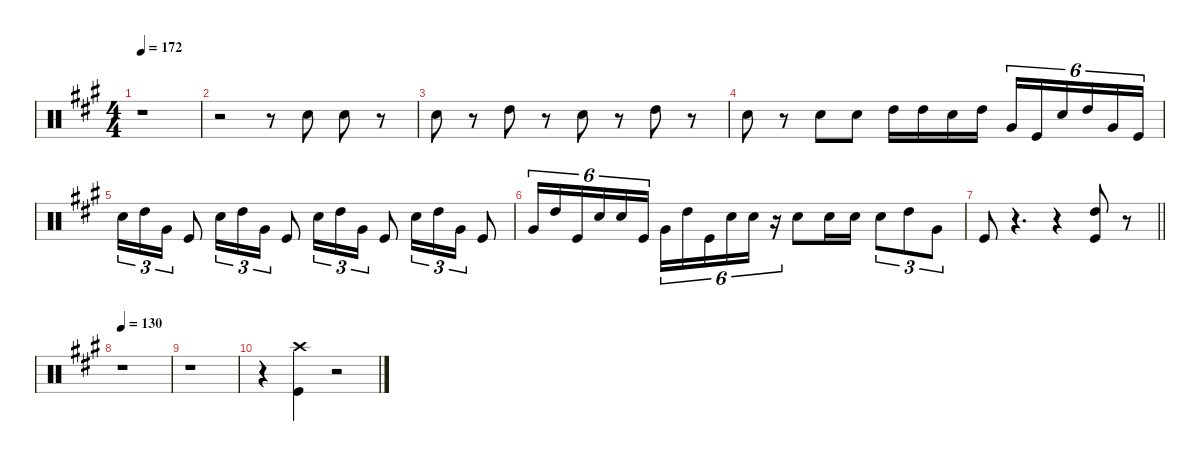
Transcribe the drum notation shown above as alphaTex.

\defaultSystemsLayout 4
\hideDynamics
\bracketExtendMode nobrackets
\singleTrackTrackNamePolicy hidden
\multiTrackTrackNamePolicy hidden
\firstSystemTrackNameMode fullname
\firstSystemTrackNameOrientation horizontal
\otherSystemsTrackNameOrientation horizontal
\track ("Percussion" "drm.") {instrument percussion}
\staff {score}
\articulation defaults
\ts (4 4)
\tempo 172
\clef neutral
\ks a
r.1{dy f beam Down} |
r.2{beam Down} r.8{beam Down} "Snare (hit) 2"{acc forcenatural}.8{beam Down} "Snare (hit) 2"{acc forcenatural}.8{beam Down} r.8{beam Down} |
"Snare (hit) 2"{acc forcenatural}.8{beam Down} r.8{beam Down} "High Tom (hit)"{acc forcenatural}.8{beam Down} r.8{beam Down} "Snare (hit) 2"{acc forcenatural}.8{beam Down} r.8{beam Down} "High Tom (hit)"{acc forcenatural}.8{beam Down} r.8{beam Down} |
"Snare (hit) 2"{acc forcenatural}.8{beam Down} r.8{beam Down} "Snare (hit) 2"{acc forcenatural}.8{beam Down} "Snare (hit) 2"{acc forcenatural}.8{beam Down} "High Tom (hit)"{acc forcenatural}.16{beam Down} "High Tom (hit)"{acc forcenatural}.16{beam Down} "Snare (hit) 2"{acc forcenatural}.16{beam Down} "High Tom (hit)"{acc forcenatural}.16{beam Down} "Very Low Tom (hit)"{acc forcenatural}.16{tu (6 4) beam Up} "Kick (hit)"{acc forcenatural}.16{tu (6 4) beam Up} "Snare (hit) 2"{acc forcenatural}.16{tu (6 4) beam Up} "High Tom (hit)"{acc forcenatural}.16{tu (6 4) beam Up} "Very Low Tom (hit)"{acc forcenatural}.16{tu (6 4) beam Up} "Kick (hit)"{acc forcenatural}.16{tu (6 4) beam Up} |
"Snare (hit) 2"{acc forcenatural}.16{tu (3 2) beam Down} "High Tom (hit)"{acc forcenatural}.16{tu (3 2) beam Down} "Very Low Tom (hit)"{acc forcenatural}.16{tu (3 2) beam Down} "Kick (hit)"{acc forcenatural}.8{beam Up} "Snare (hit) 2"{acc forcenatural}.16{tu (3 2) beam Down} "High Tom (hit)"{acc forcenatural}.16{tu (3 2) beam Down} "Very Low Tom (hit)"{acc forcenatural}.16{tu (3 2) beam Down} "Kick (hit)"{acc forcenatural}.8{beam Up} "Snare (hit) 2"{acc forcenatural}.16{tu (3 2) beam Down} "High Tom (hit)"{acc forcenatural}.16{tu (3 2) beam Down} "Very Low Tom (hit)"{acc forcenatural}.16{tu (3 2) beam Down} "Kick (hit)"{acc forcenatural}.8{beam Up} "Snare (hit) 2"{acc forcenatural}.16{tu (3 2) beam Down} "High Tom (hit)"{acc forcenatural}.16{tu (3 2) beam Down} "Very Low Tom (hit)"{acc forcenatural}.16{tu (3 2) beam Down} "Kick (hit)"{acc forcenatural}.8{beam Up} |
"Very Low Tom (hit)"{acc forcenatural}.16{tu (6 4) beam Up} "High Tom (hit)"{acc forcenatural}.16{tu (6 4) beam Up} "Kick (hit)"{acc forcenatural}.16{tu (6 4) beam Up} "Snare (hit) 2"{acc forcenatural}.16{tu (6 4) beam Up} "Snare (hit) 2"{acc forcenatural}.16{tu (6 4) beam Up} "Kick (hit)"{acc forcenatural}.16{tu (6 4) beam Up} "Very Low Tom (hit)"{acc forcenatural}.16{tu (6 4) beam Down} "High Tom (hit)"{acc forcenatural}.16{tu (6 4) beam Down} "Kick (hit)"{acc forcenatural}.16{tu (6 4) beam Down} "Snare (hit) 2"{acc forcenatural}.16{tu (6 4) beam Down} "Snare (hit) 2"{acc forcenatural}.16{tu (6 4) beam Down} r.16{tu (6 4) beam Down} "Snare (hit) 2"{acc forcenatural}.8{beam Down} "Snare (hit) 2"{acc forcenatural}.16{beam Down} "Snare (hit) 2"{acc forcenatural}.16{beam Down} "Snare (hit) 2"{acc forcenatural}.8{tu (3 2) beam Down} "High Tom (hit)"{acc forcenatural}.8{tu (3 2) beam Down} "Very Low Tom (hit)"{acc forcenatural}.8{tu (3 2) beam Down} |
\barLineRight lightlight "Kick (hit)"{acc forcenatural}.8{beam Up}
r.4{d beam Up} r.4{beam Up} ("High Tom (hit)"{acc forcenatural} "Kick (hit)"{acc forcenatural}).8{beam Up} r.8{beam Up} |
\tempo 130
r.1{beam Down} |
r.1{beam Down} |
r.4{beam Down} ("Crash high (hit)"{acc forcenatural} "Kick (hit)"{acc forcenatural}).4{beam Down} r.2{beam Down}
